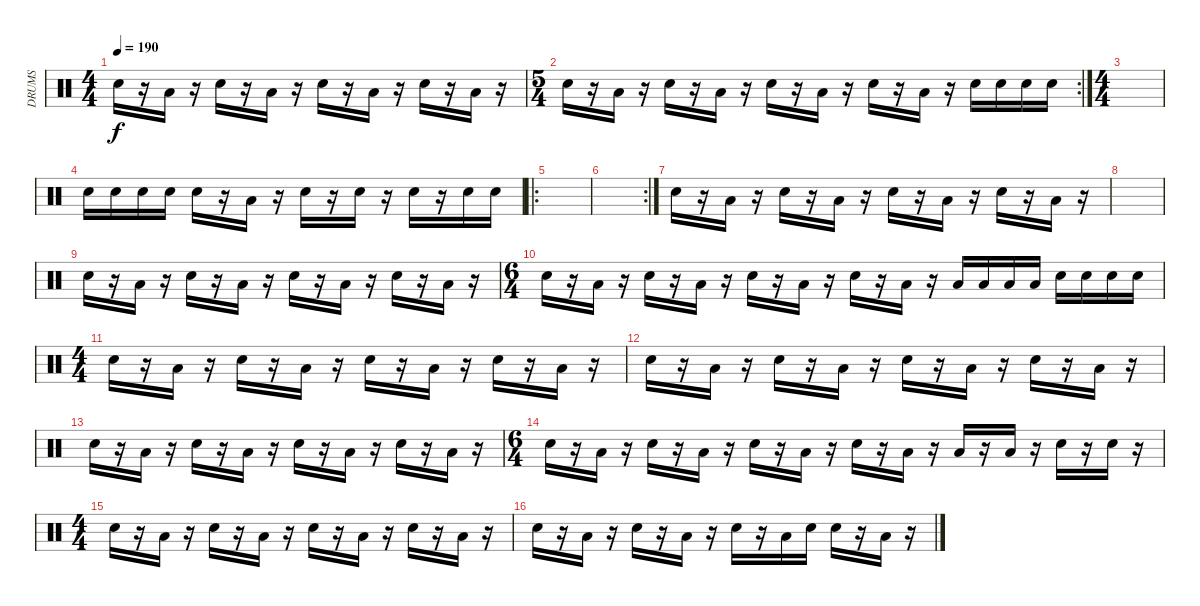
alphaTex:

\track ("DRUMS" "DRUMS") {instrument percussion}
\staff {score}
\articulation defaults
\ts (4 4)
\tempo 190
\clef neutral
\ks c "Electric Snare (hit)".16{dy f}
r.16 "Low Tom (hit)".16 r.16 "Electric Snare (hit)".16 r.16 "Low Tom (hit)".16 r.16 "Electric Snare (hit)".16 r.16 "Low Tom (hit)".16 r.16 "Electric Snare (hit)".16 r.16 "Low Tom (hit)".16 r.16 |
\rc 2
\ts (5 4)
"Electric Snare (hit)".16 r.16 "Low Tom (hit)".16 r.16 "Electric Snare (hit)".16 r.16 "Low Tom (hit)".16 r.16 "Electric Snare (hit)".16 r.16 "Low Tom (hit)".16 r.16 "Electric Snare (hit)".16 r.16 "Low Tom (hit)".16 r.16 "Electric Snare (hit)".16 "Electric Snare (hit)".16 "Electric Snare (hit)".16 "Electric Snare (hit)".16 |
\ts (4 4)
|
"Electric Snare (hit)".16 "Electric Snare (hit)".16 "Electric Snare (hit)".16 "Electric Snare (hit)".16 "Electric Snare (hit)".16 r.16 "Low Tom (hit)".16 r.16 "Electric Snare (hit)".16 r.16 "Electric Snare (hit)".16 r.16 "Electric Snare (hit)".16 r.16 "Electric Snare (hit)".16 "Electric Snare (hit)".16 |
\ro
|
\rc 2
|
"Electric Snare (hit)".16 r.16 "Low Tom (hit)".16 r.16 "Electric Snare (hit)".16 r.16 "Low Tom (hit)".16 r.16 "Electric Snare (hit)".16 r.16 "Low Tom (hit)".16 r.16 "Electric Snare (hit)".16 r.16 "Low Tom (hit)".16 r.16 |
|
"Electric Snare (hit)".16 r.16 "Low Tom (hit)".16 r.16 "Electric Snare (hit)".16 r.16 "Low Tom (hit)".16 r.16 "Electric Snare (hit)".16 r.16 "Low Tom (hit)".16 r.16 "Electric Snare (hit)".16 r.16 "Low Tom (hit)".16 r.16 |
\ts (6 4)
"Electric Snare (hit)".16 r.16 "Low Tom (hit)".16 r.16 "Electric Snare (hit)".16 r.16 "Low Tom (hit)".16 r.16 "Electric Snare (hit)".16 r.16 "Low Tom (hit)".16 r.16 "Electric Snare (hit)".16 r.16 "Low Tom (hit)".16 r.16 "Low Tom (hit)".16 "Low Tom (hit)".16 "Low Tom (hit)".16 "Low Tom (hit)".16 "Electric Snare (hit)".16 "Electric Snare (hit)".16 "Electric Snare (hit)".16 "Electric Snare (hit)".16 |
\ts (4 4)
"Electric Snare (hit)".16 r.16 "Low Tom (hit)".16 r.16 "Electric Snare (hit)".16 r.16 "Low Tom (hit)".16 r.16 "Electric Snare (hit)".16 r.16 "Low Tom (hit)".16 r.16 "Electric Snare (hit)".16 r.16 "Low Tom (hit)".16 r.16 |
"Electric Snare (hit)".16 r.16 "Low Tom (hit)".16 r.16 "Electric Snare (hit)".16 r.16 "Low Tom (hit)".16 r.16 "Electric Snare (hit)".16 r.16 "Low Tom (hit)".16 r.16 "Electric Snare (hit)".16 r.16 "Low Tom (hit)".16 r.16 |
"Electric Snare (hit)".16 r.16 "Low Tom (hit)".16 r.16 "Electric Snare (hit)".16 r.16 "Low Tom (hit)".16 r.16 "Electric Snare (hit)".16 r.16 "Low Tom (hit)".16 r.16 "Electric Snare (hit)".16 r.16 "Low Tom (hit)".16 r.16 |
\ts (6 4)
"Electric Snare (hit)".16 r.16 "Low Tom (hit)".16 r.16 "Electric Snare (hit)".16 r.16 "Low Tom (hit)".16 r.16 "Electric Snare (hit)".16 r.16 "Low Tom (hit)".16 r.16 "Electric Snare (hit)".16 r.16 "Low Tom (hit)".16 r.16 "Low Tom (hit)".16 r.16 "Low Tom (hit)".16 r.16 "Electric Snare (hit)".16 r.16 "Electric Snare (hit)".16 r.16 |
\ts (4 4)
"Electric Snare (hit)".16 r.16 "Low Tom (hit)".16 r.16 "Electric Snare (hit)".16 r.16 "Low Tom (hit)".16 r.16 "Electric Snare (hit)".16 r.16 "Low Tom (hit)".16 r.16 "Electric Snare (hit)".16 r.16 "Low Tom (hit)".16 r.16 |
"Electric Snare (hit)".16 r.16 "Low Tom (hit)".16 r.16 "Electric Snare (hit)".16 r.16 "Low Tom (hit)".16 r.16 "Electric Snare (hit)".16 r.16 "Low Tom (hit)".16 "Electric Snare (hit)".16 "Electric Snare (hit)".16 r.16 "Low Tom (hit)".16 r.16
